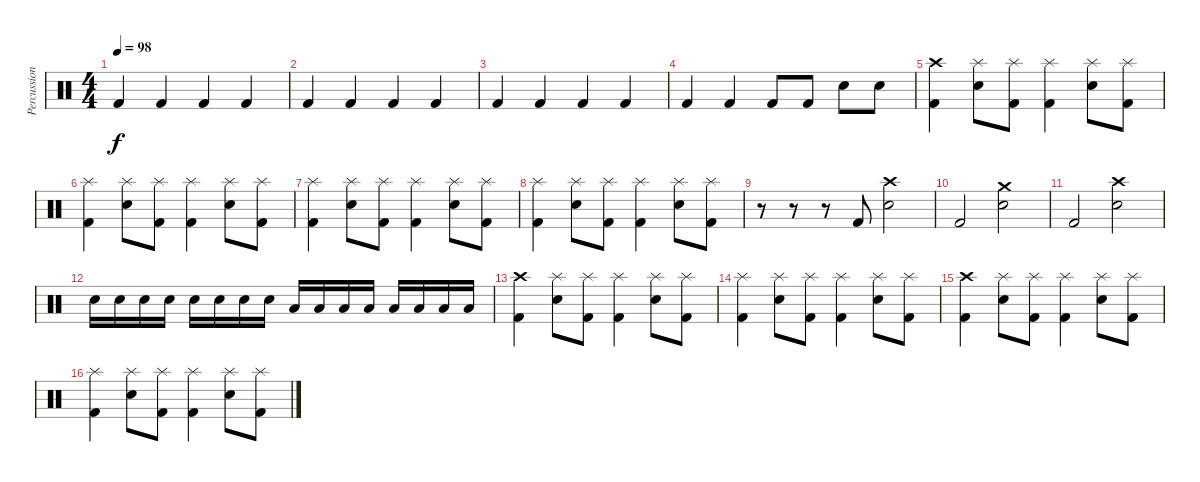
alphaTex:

\track ("Percussion" "Percussion") {instrument percussion}
\staff {score}
\articulation defaults
\ts (4 4)
\tempo 98
\clef neutral
\ks c "Kick (hit) 2".4{dy f} "Kick (hit) 2".4 "Kick (hit) 2".4 "Kick (hit) 2".4
|
"Kick (hit) 2".4 "Kick (hit) 2".4 "Kick (hit) 2".4 "Kick (hit) 2".4 |
"Kick (hit) 2".4 "Kick (hit) 2".4 "Kick (hit) 2".4 "Kick (hit) 2".4 |
"Kick (hit) 2".4 "Kick (hit) 2".4 "Kick (hit) 2".8 "Kick (hit) 2".8 "Electric Snare (hit)".8 "Electric Snare (hit)".8 |
("Crash high (hit)" "Kick (hit) 2").4 ("Splash (hit)" "Electric Snare (hit)").8 ("Splash (hit)" "Kick (hit) 2").8 ("Splash (hit)" "Kick (hit) 2").4 ("Splash (hit)" "Electric Snare (hit)").8 ("Splash (hit)" "Kick (hit) 2").8 |
("Splash (hit)" "Kick (hit) 2").4 ("Splash (hit)" "Electric Snare (hit)").8 ("Splash (hit)" "Kick (hit) 2").8 ("Splash (hit)" "Kick (hit) 2").4 ("Splash (hit)" "Electric Snare (hit)").8 ("Splash (hit)" "Kick (hit) 2").8 |
("Splash (hit)" "Kick (hit) 2").4 ("Splash (hit)" "Electric Snare (hit)").8 ("Splash (hit)" "Kick (hit) 2").8 ("Splash (hit)" "Kick (hit) 2").4 ("Splash (hit)" "Electric Snare (hit)").8 ("Splash (hit)" "Kick (hit) 2").8 |
("Splash (hit)" "Kick (hit) 2").4 ("Splash (hit)" "Electric Snare (hit)").8 ("Splash (hit)" "Kick (hit) 2").8 ("Splash (hit)" "Kick (hit) 2").4 ("Splash (hit)" "Electric Snare (hit)").8 ("Splash (hit)" "Kick (hit) 2").8 |
r.8 r.8 r.8 "Kick (hit) 2".8 ("Crash high (hit)" "Electric Snare (hit)").2 |
"Kick (hit) 2".2 ("Crash medium (hit)" "Electric Snare (hit)").2 |
"Kick (hit) 2".2 ("Crash high (hit)" "Electric Snare (hit)").2 |
"Electric Snare (hit)".16 "Electric Snare (hit)".16 "Electric Snare (hit)".16 "Electric Snare (hit)".16 "Electric Snare (hit)".16 "Electric Snare (hit)".16 "Electric Snare (hit)".16 "Electric Snare (hit)".16 "Low Floor Tom (hit)".16 "Low Floor Tom (hit)".16 "Low Floor Tom (hit)".16 "Low Floor Tom (hit)".16 "Low Floor Tom (hit)".16 "Low Floor Tom (hit)".16 "Low Floor Tom (hit)".16 "Low Floor Tom (hit)".16 |
("Crash high (hit)" "Kick (hit) 2").4 ("Splash (hit)" "Electric Snare (hit)").8 ("Splash (hit)" "Kick (hit) 2").8 ("Splash (hit)" "Kick (hit) 2").4 ("Splash (hit)" "Electric Snare (hit)").8 ("Splash (hit)" "Kick (hit) 2").8 |
("Splash (hit)" "Kick (hit) 2").4 ("Splash (hit)" "Electric Snare (hit)").8 ("Splash (hit)" "Kick (hit) 2").8 ("Splash (hit)" "Kick (hit) 2").4 ("Splash (hit)" "Electric Snare (hit)").8 ("Splash (hit)" "Kick (hit) 2").8 |
("Crash high (hit)" "Kick (hit) 2").4 ("Splash (hit)" "Electric Snare (hit)").8 ("Splash (hit)" "Kick (hit) 2").8 ("Splash (hit)" "Kick (hit) 2").4 ("Splash (hit)" "Electric Snare (hit)").8 ("Splash (hit)" "Kick (hit) 2").8 |
("Splash (hit)" "Kick (hit) 2").4 ("Splash (hit)" "Electric Snare (hit)").8 ("Splash (hit)" "Kick (hit) 2").8 ("Splash (hit)" "Kick (hit) 2").4 ("Splash (hit)" "Electric Snare (hit)").8 ("Splash (hit)" "Kick (hit) 2").8
